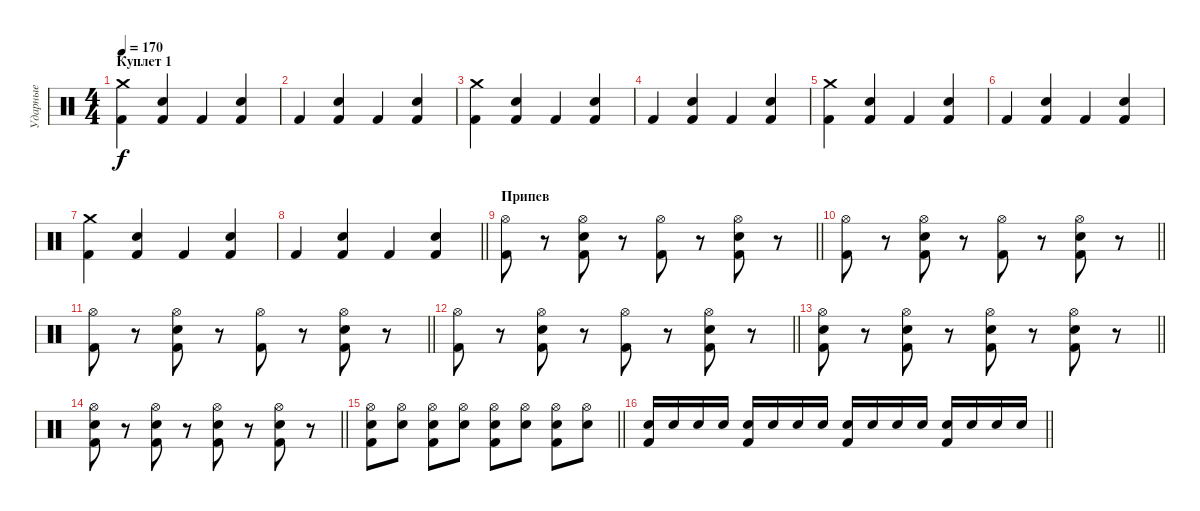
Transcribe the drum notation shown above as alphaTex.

\track ("Ударные" "Ударные") {instrument percussion}
\staff {score}
\articulation defaults
\ts (4 4)
\section ("" "Куплет 1")
\tempo 170
\clef neutral
\ks c
("Kick (hit) 2" "Crash medium (hit)").4{dy f} ("Kick (hit) 2" "Electric Snare (hit)").4 "Kick (hit) 2".4 ("Kick (hit) 2" "Electric Snare (hit)").4 |
"Kick (hit) 2".4 ("Kick (hit) 2" "Electric Snare (hit)").4 "Kick (hit) 2".4 ("Kick (hit) 2" "Electric Snare (hit)").4 |
("Kick (hit) 2" "Crash medium (hit)").4 ("Kick (hit) 2" "Electric Snare (hit)").4 "Kick (hit) 2".4 ("Kick (hit) 2" "Electric Snare (hit)").4 |
"Kick (hit) 2".4 ("Kick (hit) 2" "Electric Snare (hit)").4 "Kick (hit) 2".4 ("Kick (hit) 2" "Electric Snare (hit)").4 |
("Kick (hit) 2" "Crash medium (hit)").4 ("Kick (hit) 2" "Electric Snare (hit)").4 "Kick (hit) 2".4 ("Kick (hit) 2" "Electric Snare (hit)").4 |
"Kick (hit) 2".4 ("Kick (hit) 2" "Electric Snare (hit)").4 "Kick (hit) 2".4 ("Kick (hit) 2" "Electric Snare (hit)").4 |
("Kick (hit) 2" "Crash medium (hit)").4 ("Kick (hit) 2" "Electric Snare (hit)").4 "Kick (hit) 2".4 ("Kick (hit) 2" "Electric Snare (hit)").4 |
\barLineRight lightlight "Kick (hit) 2".4
("Kick (hit) 2" "Electric Snare (hit)").4 "Kick (hit) 2".4 ("Kick (hit) 2" "Electric Snare (hit)").4 |
\section ("" "Припев")
\barLineRight lightlight
("Kick (hit) 2" "Hi-Hat (open)").8 r.8 ("Kick (hit) 2" "Hi-Hat (open)" "Electric Snare (hit)").8 r.8 ("Kick (hit) 2" "Hi-Hat (open)").8 r.8 ("Kick (hit) 2" "Hi-Hat (open)" "Electric Snare (hit)").8 r.8 |
\barLineRight lightlight
("Kick (hit) 2" "Hi-Hat (open)").8 r.8 ("Kick (hit) 2" "Hi-Hat (open)" "Electric Snare (hit)").8 r.8 ("Kick (hit) 2" "Hi-Hat (open)").8 r.8 ("Kick (hit) 2" "Hi-Hat (open)" "Electric Snare (hit)").8 r.8 |
\barLineRight lightlight
("Kick (hit) 2" "Hi-Hat (open)").8 r.8 ("Kick (hit) 2" "Hi-Hat (open)" "Electric Snare (hit)").8 r.8 ("Kick (hit) 2" "Hi-Hat (open)").8 r.8 ("Kick (hit) 2" "Hi-Hat (open)" "Electric Snare (hit)").8 r.8 |
\barLineRight lightlight
("Kick (hit) 2" "Hi-Hat (open)").8 r.8 ("Kick (hit) 2" "Hi-Hat (open)" "Electric Snare (hit)").8 r.8 ("Kick (hit) 2" "Hi-Hat (open)").8 r.8 ("Kick (hit) 2" "Hi-Hat (open)" "Electric Snare (hit)").8 r.8 |
\barLineRight lightlight
("Kick (hit) 2" "Hi-Hat (open)" "Electric Snare (hit)").8 r.8 ("Kick (hit) 2" "Hi-Hat (open)" "Electric Snare (hit)").8 r.8 ("Kick (hit) 2" "Hi-Hat (open)" "Electric Snare (hit)").8 r.8 ("Kick (hit) 2" "Hi-Hat (open)" "Electric Snare (hit)").8 r.8 |
\barLineRight lightlight
("Kick (hit) 2" "Hi-Hat (open)" "Electric Snare (hit)").8 r.8 ("Kick (hit) 2" "Hi-Hat (open)" "Electric Snare (hit)").8 r.8 ("Kick (hit) 2" "Hi-Hat (open)" "Electric Snare (hit)").8 r.8 ("Kick (hit) 2" "Hi-Hat (open)" "Electric Snare (hit)").8 r.8 |
\barLineRight lightlight
("Kick (hit) 2" "Hi-Hat (open)" "Electric Snare (hit)").8 ("Hi-Hat (open)" "Electric Snare (hit)").8 ("Kick (hit) 2" "Hi-Hat (open)" "Electric Snare (hit)").8 ("Hi-Hat (open)" "Electric Snare (hit)").8 ("Kick (hit) 2" "Hi-Hat (open)" "Electric Snare (hit)").8 ("Hi-Hat (open)" "Electric Snare (hit)").8 ("Kick (hit) 2" "Hi-Hat (open)" "Electric Snare (hit)").8 ("Hi-Hat (open)" "Electric Snare (hit)").8 |
\barLineRight lightlight
("Kick (hit) 2" "Electric Snare (hit)").16 "Electric Snare (hit)".16 "Electric Snare (hit)".16 "Electric Snare (hit)".16 ("Kick (hit) 2" "Electric Snare (hit)").16 "Electric Snare (hit)".16 "Electric Snare (hit)".16 "Electric Snare (hit)".16 ("Kick (hit) 2" "Electric Snare (hit)").16 "Electric Snare (hit)".16 "Electric Snare (hit)".16 "Electric Snare (hit)".16 ("Kick (hit) 2" "Electric Snare (hit)").16 "Electric Snare (hit)".16 "Electric Snare (hit)".16 "Electric Snare (hit)".16
